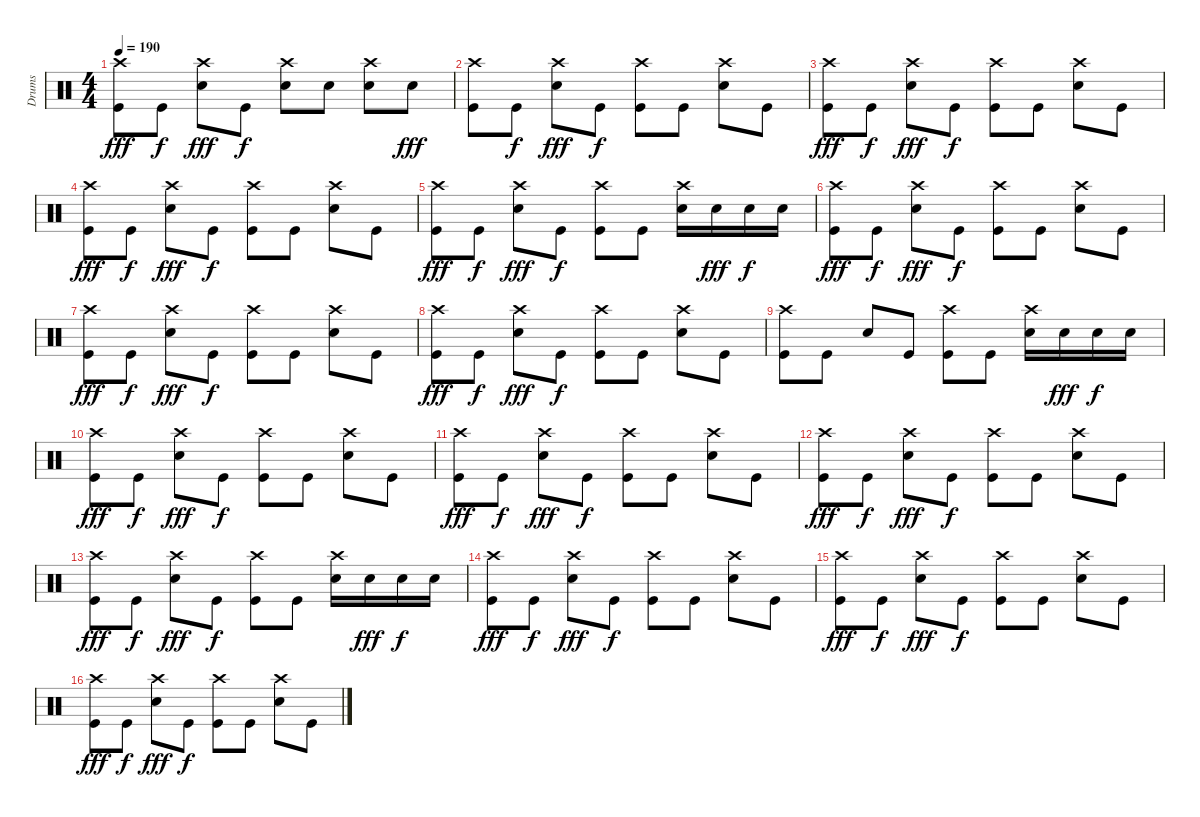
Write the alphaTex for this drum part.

\track ("Drums" "Drums") {instrument percussion}
\staff {score}
\articulation defaults
\ts (4 4)
\tempo 190
\clef neutral
\ks c
("Crash high (hit)" "Kick (hit)").8{dy fff} "Kick (hit)".8{dy f} ("Crash high (hit)" "Snare (hit) 2").8{dy fff} "Kick (hit)".8{dy f} ("Crash high (hit)" "Snare (hit) 2").8 "Snare (hit) 2".8 ("Crash high (hit)" "Snare (hit) 2").8 "Snare (hit) 2".8{dy fff} |
("Crash high (hit)" "Kick (hit)").8 "Kick (hit)".8{dy f} ("Crash high (hit)" "Snare (hit) 2").8{dy fff} "Kick (hit)".8{dy f} ("Crash high (hit)" "Kick (hit)").8 "Kick (hit)".8 ("Crash high (hit)" "Snare (hit) 2").8 "Kick (hit)".8 |
("Crash high (hit)" "Kick (hit)").8{dy fff} "Kick (hit)".8{dy f} ("Crash high (hit)" "Snare (hit) 2").8{dy fff} "Kick (hit)".8{dy f} ("Crash high (hit)" "Kick (hit)").8 "Kick (hit)".8 ("Crash high (hit)" "Snare (hit) 2").8 "Kick (hit)".8 |
("Crash high (hit)" "Kick (hit)").8{dy fff} "Kick (hit)".8{dy f} ("Crash high (hit)" "Snare (hit) 2").8{dy fff} "Kick (hit)".8{dy f} ("Crash high (hit)" "Kick (hit)").8 "Kick (hit)".8 ("Crash high (hit)" "Snare (hit) 2").8 "Kick (hit)".8 |
("Crash high (hit)" "Kick (hit)").8{dy fff} "Kick (hit)".8{dy f} ("Crash high (hit)" "Snare (hit) 2").8{dy fff} "Kick (hit)".8{dy f} ("Crash high (hit)" "Kick (hit)").8 "Kick (hit)".8 ("Crash high (hit)" "Snare (hit) 2").16 "Snare (hit) 2".16{dy fff} "Snare (hit) 2".16{dy f} "Snare (hit) 2".16 |
("Crash high (hit)" "Kick (hit)").8{dy fff} "Kick (hit)".8{dy f} ("Crash high (hit)" "Snare (hit) 2").8{dy fff} "Kick (hit)".8{dy f} ("Crash high (hit)" "Kick (hit)").8 "Kick (hit)".8 ("Crash high (hit)" "Snare (hit) 2").8 "Kick (hit)".8 |
("Crash high (hit)" "Kick (hit)").8{dy fff} "Kick (hit)".8{dy f} ("Crash high (hit)" "Snare (hit) 2").8{dy fff} "Kick (hit)".8{dy f} ("Crash high (hit)" "Kick (hit)").8 "Kick (hit)".8 ("Crash high (hit)" "Snare (hit) 2").8 "Kick (hit)".8 |
("Crash high (hit)" "Kick (hit)").8{dy fff} "Kick (hit)".8{dy f} ("Crash high (hit)" "Snare (hit) 2").8{dy fff} "Kick (hit)".8{dy f} ("Crash high (hit)" "Kick (hit)").8 "Kick (hit)".8 ("Crash high (hit)" "Snare (hit) 2").8 "Kick (hit)".8 |
("Crash high (hit)" "Kick (hit)").8 "Kick (hit)".8 "Snare (hit) 2".8 "Kick (hit)".8 ("Crash high (hit)" "Kick (hit)").8 "Kick (hit)".8 ("Crash high (hit)" "Snare (hit) 2").16 "Snare (hit) 2".16{dy fff} "Snare (hit) 2".16{dy f} "Snare (hit) 2".16 |
("Crash high (hit)" "Kick (hit)").8{dy fff} "Kick (hit)".8{dy f} ("Crash high (hit)" "Snare (hit) 2").8{dy fff} "Kick (hit)".8{dy f} ("Crash high (hit)" "Kick (hit)").8 "Kick (hit)".8 ("Crash high (hit)" "Snare (hit) 2").8 "Kick (hit)".8 |
("Crash high (hit)" "Kick (hit)").8{dy fff} "Kick (hit)".8{dy f} ("Crash high (hit)" "Snare (hit) 2").8{dy fff} "Kick (hit)".8{dy f} ("Crash high (hit)" "Kick (hit)").8 "Kick (hit)".8 ("Crash high (hit)" "Snare (hit) 2").8 "Kick (hit)".8 |
("Crash high (hit)" "Kick (hit)").8{dy fff} "Kick (hit)".8{dy f} ("Crash high (hit)" "Snare (hit) 2").8{dy fff} "Kick (hit)".8{dy f} ("Crash high (hit)" "Kick (hit)").8 "Kick (hit)".8 ("Crash high (hit)" "Snare (hit) 2").8 "Kick (hit)".8 |
("Crash high (hit)" "Kick (hit)").8{dy fff} "Kick (hit)".8{dy f} ("Crash high (hit)" "Snare (hit) 2").8{dy fff} "Kick (hit)".8{dy f} ("Crash high (hit)" "Kick (hit)").8 "Kick (hit)".8 ("Crash high (hit)" "Snare (hit) 2").16 "Snare (hit) 2".16{dy fff} "Snare (hit) 2".16{dy f} "Snare (hit) 2".16 |
("Crash high (hit)" "Kick (hit)").8{dy fff} "Kick (hit)".8{dy f} ("Crash high (hit)" "Snare (hit) 2").8{dy fff} "Kick (hit)".8{dy f} ("Crash high (hit)" "Kick (hit)").8 "Kick (hit)".8 ("Crash high (hit)" "Snare (hit) 2").8 "Kick (hit)".8 |
("Crash high (hit)" "Kick (hit)").8{dy fff} "Kick (hit)".8{dy f} ("Crash high (hit)" "Snare (hit) 2").8{dy fff} "Kick (hit)".8{dy f} ("Crash high (hit)" "Kick (hit)").8 "Kick (hit)".8 ("Crash high (hit)" "Snare (hit) 2").8 "Kick (hit)".8 |
("Crash high (hit)" "Kick (hit)").8{dy fff} "Kick (hit)".8{dy f} ("Crash high (hit)" "Snare (hit) 2").8{dy fff} "Kick (hit)".8{dy f} ("Crash high (hit)" "Kick (hit)").8 "Kick (hit)".8 ("Crash high (hit)" "Snare (hit) 2").8 "Kick (hit)".8
